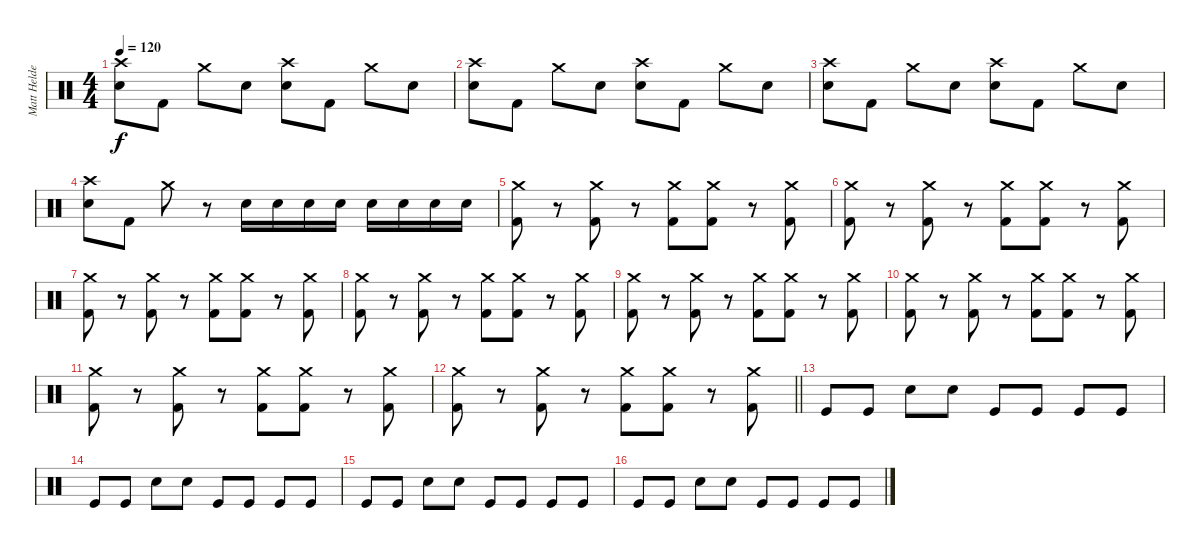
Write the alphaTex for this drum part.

\track ("Matt Helders" "Matt Helde") {instrument percussion}
\staff {score}
\articulation defaults
\ts (4 4)
\tempo 120
\clef neutral
\ks c
("Snare (hit) 2" "Crash high (hit)").8{dy f} "Kick (hit) 2".8 "Crash medium (hit)".8 "Snare (hit) 2".8 ("Snare (hit) 2" "Crash high (hit)").8 "Kick (hit) 2".8 "Crash medium (hit)".8 "Snare (hit) 2".8 |
("Snare (hit) 2" "Crash high (hit)").8 "Kick (hit) 2".8 "Crash medium (hit)".8 "Snare (hit) 2".8 ("Snare (hit) 2" "Crash high (hit)").8 "Kick (hit) 2".8 "Crash medium (hit)".8 "Snare (hit) 2".8 |
("Snare (hit) 2" "Crash high (hit)").8 "Kick (hit) 2".8 "Crash medium (hit)".8 "Snare (hit) 2".8 ("Snare (hit) 2" "Crash high (hit)").8 "Kick (hit) 2".8 "Crash medium (hit)".8 "Snare (hit) 2".8 |
("Snare (hit) 2" "Crash high (hit)").8 "Kick (hit) 2".8 "Crash medium (hit)".8 r.8 "Snare (hit) 2".16 "Snare (hit) 2".16 "Snare (hit) 2".16 "Snare (hit) 2".16 "Snare (hit) 2".16 "Snare (hit) 2".16 "Snare (hit) 2".16 "Snare (hit) 2".16 |
("Crash medium (hit)" "Kick (hit) 2").8 r.8 ("Crash medium (hit)" "Kick (hit) 2").8 r.8 ("Crash medium (hit)" "Kick (hit) 2").8 ("Crash medium (hit)" "Kick (hit) 2").8 r.8 ("Crash medium (hit)" "Kick (hit) 2").8 |
("Crash medium (hit)" "Kick (hit) 2").8 r.8 ("Crash medium (hit)" "Kick (hit) 2").8 r.8 ("Crash medium (hit)" "Kick (hit) 2").8 ("Crash medium (hit)" "Kick (hit) 2").8 r.8 ("Crash medium (hit)" "Kick (hit) 2").8 |
("Crash medium (hit)" "Kick (hit) 2").8 r.8 ("Crash medium (hit)" "Kick (hit) 2").8 r.8 ("Crash medium (hit)" "Kick (hit) 2").8 ("Crash medium (hit)" "Kick (hit) 2").8 r.8 ("Crash medium (hit)" "Kick (hit) 2").8 |
("Crash medium (hit)" "Kick (hit) 2").8 r.8 ("Crash medium (hit)" "Kick (hit) 2").8 r.8 ("Crash medium (hit)" "Kick (hit) 2").8 ("Crash medium (hit)" "Kick (hit) 2").8 r.8 ("Crash medium (hit)" "Kick (hit) 2").8 |
("Crash medium (hit)" "Kick (hit) 2").8 r.8 ("Crash medium (hit)" "Kick (hit) 2").8 r.8 ("Crash medium (hit)" "Kick (hit) 2").8 ("Crash medium (hit)" "Kick (hit) 2").8 r.8 ("Crash medium (hit)" "Kick (hit) 2").8 |
("Crash medium (hit)" "Kick (hit) 2").8 r.8 ("Crash medium (hit)" "Kick (hit) 2").8 r.8 ("Crash medium (hit)" "Kick (hit) 2").8 ("Crash medium (hit)" "Kick (hit) 2").8 r.8 ("Crash medium (hit)" "Kick (hit) 2").8 |
("Crash medium (hit)" "Kick (hit) 2").8 r.8 ("Crash medium (hit)" "Kick (hit) 2").8 r.8 ("Crash medium (hit)" "Kick (hit) 2").8 ("Crash medium (hit)" "Kick (hit) 2").8 r.8 ("Crash medium (hit)" "Kick (hit) 2").8 |
\barLineRight lightlight
("Crash medium (hit)" "Kick (hit) 2").8 r.8 ("Crash medium (hit)" "Kick (hit) 2").8 r.8 ("Crash medium (hit)" "Kick (hit) 2").8 ("Crash medium (hit)" "Kick (hit) 2").8 r.8 ("Crash medium (hit)" "Kick (hit) 2").8 |
\section ("" "")
"Kick (hit)".8 "Kick (hit)".8 "Electric Snare (hit)".8 "Electric Snare (hit)".8 "Kick (hit)".8 "Kick (hit)".8 "Kick (hit)".8 "Kick (hit)".8 |
"Kick (hit)".8 "Kick (hit)".8 "Electric Snare (hit)".8 "Electric Snare (hit)".8 "Kick (hit)".8 "Kick (hit)".8 "Kick (hit)".8 "Kick (hit)".8 |
"Kick (hit)".8 "Kick (hit)".8 "Electric Snare (hit)".8 "Electric Snare (hit)".8 "Kick (hit)".8 "Kick (hit)".8 "Kick (hit)".8 "Kick (hit)".8 |
"Kick (hit)".8 "Kick (hit)".8 "Electric Snare (hit)".8 "Electric Snare (hit)".8 "Kick (hit)".8 "Kick (hit)".8 "Kick (hit)".8 "Kick (hit)".8
